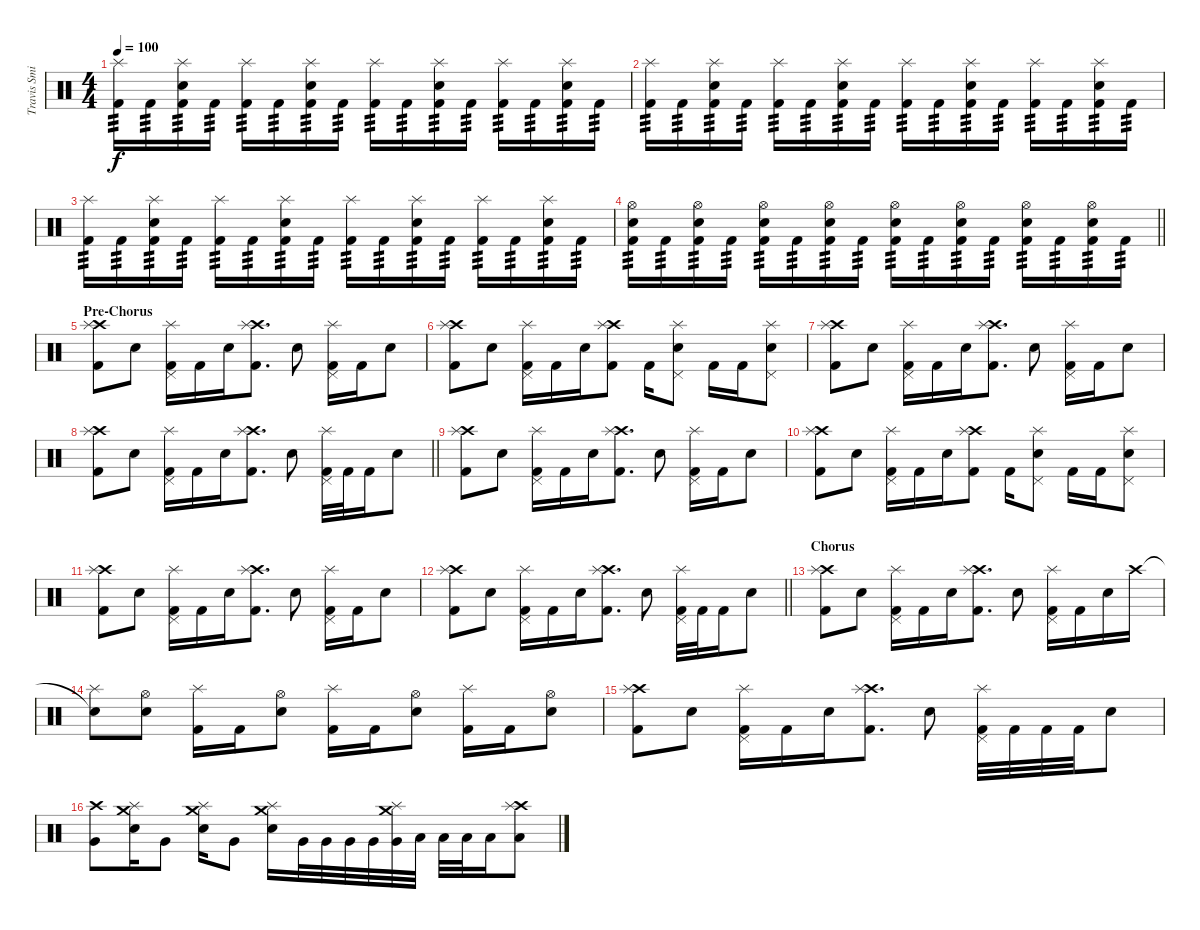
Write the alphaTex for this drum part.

\track ("Travis Smith" "Travis Smi") {instrument percussion}
\staff {score}
\articulation defaults
\ts (4 4)
\tempo 100
\clef neutral
\ks c
("Splash (hit)" "Kick (hit) 2").16{tp 3 dy f} "Kick (hit) 2".16{tp 3} ("Splash (hit)" "Snare (hit) 2" "Kick (hit) 2").16{tp 3} "Kick (hit) 2".16{tp 3} ("Splash (hit)" "Kick (hit) 2").16{tp 3} "Kick (hit) 2".16{tp 3} ("Splash (hit)" "Snare (hit) 2" "Kick (hit) 2").16{tp 3} "Kick (hit) 2".16{tp 3} ("Splash (hit)" "Kick (hit) 2").16{tp 3} "Kick (hit) 2".16{tp 3} ("Splash (hit)" "Snare (hit) 2" "Kick (hit) 2").16{tp 3} "Kick (hit) 2".16{tp 3} ("Splash (hit)" "Kick (hit) 2").16{tp 3} "Kick (hit) 2".16{tp 3} ("Splash (hit)" "Snare (hit) 2" "Kick (hit) 2").16{tp 3} "Kick (hit) 2".16{tp 3} |
("Splash (hit)" "Kick (hit) 2").16{tp 3} "Kick (hit) 2".16{tp 3} ("Splash (hit)" "Snare (hit) 2" "Kick (hit) 2").16{tp 3} "Kick (hit) 2".16{tp 3} ("Splash (hit)" "Kick (hit) 2").16{tp 3} "Kick (hit) 2".16{tp 3} ("Splash (hit)" "Snare (hit) 2" "Kick (hit) 2").16{tp 3} "Kick (hit) 2".16{tp 3} ("Splash (hit)" "Kick (hit) 2").16{tp 3} "Kick (hit) 2".16{tp 3} ("Splash (hit)" "Snare (hit) 2" "Kick (hit) 2").16{tp 3} "Kick (hit) 2".16{tp 3} ("Splash (hit)" "Kick (hit) 2").16{tp 3} "Kick (hit) 2".16{tp 3} ("Splash (hit)" "Snare (hit) 2" "Kick (hit) 2").16{tp 3} "Kick (hit) 2".16{tp 3} |
("Splash (hit)" "Kick (hit) 2").16{tp 3} "Kick (hit) 2".16{tp 3} ("Splash (hit)" "Snare (hit) 2" "Kick (hit) 2").16{tp 3} "Kick (hit) 2".16{tp 3} ("Splash (hit)" "Kick (hit) 2").16{tp 3} "Kick (hit) 2".16{tp 3} ("Splash (hit)" "Snare (hit) 2" "Kick (hit) 2").16{tp 3} "Kick (hit) 2".16{tp 3} ("Splash (hit)" "Kick (hit) 2").16{tp 3} "Kick (hit) 2".16{tp 3} ("Splash (hit)" "Snare (hit) 2" "Kick (hit) 2").16{tp 3} "Kick (hit) 2".16{tp 3} ("Splash (hit)" "Kick (hit) 2").16{tp 3} "Kick (hit) 2".16{tp 3} ("Splash (hit)" "Snare (hit) 2" "Kick (hit) 2").16{tp 3} "Kick (hit) 2".16{tp 3} |
\barLineRight lightlight
("Hi-Hat (open)" "Snare (hit) 2" "Kick (hit) 2").16{tp 3} "Kick (hit) 2".16{tp 3} ("Hi-Hat (open)" "Snare (hit) 2" "Kick (hit) 2").16{tp 3} "Kick (hit) 2".16{tp 3} ("Hi-Hat (open)" "Snare (hit) 2" "Kick (hit) 2").16{tp 3} "Kick (hit) 2".16{tp 3} ("Hi-Hat (open)" "Snare (hit) 2" "Kick (hit) 2").16{tp 3} "Kick (hit) 2".16{tp 3} ("Hi-Hat (open)" "Snare (hit) 2" "Kick (hit) 2").16{tp 3} "Kick (hit) 2".16{tp 3} ("Hi-Hat (open)" "Snare (hit) 2" "Kick (hit) 2").16{tp 3} "Kick (hit) 2".16{tp 3} ("Hi-Hat (open)" "Snare (hit) 2" "Kick (hit) 2").16{tp 3} "Kick (hit) 2".16{tp 3} ("Hi-Hat (open)" "Snare (hit) 2" "Kick (hit) 2").16{tp 3} "Kick (hit) 2".16{tp 3} |
\section ("" "Pre-Chorus")
("Crash high (hit)" "Splash (hit)" "Kick (hit) 2").8 "Snare (hit) 2".8 ("Pedal Hi-Hat (hit)" "Splash (hit)" "Kick (hit) 2").16 "Kick (hit) 2".16 "Snare (hit) 2".16 ("Crash high (hit)" "Splash (hit)" "Kick (hit) 2").8{d} "Snare (hit) 2".8 ("Pedal Hi-Hat (hit)" "Splash (hit)" "Kick (hit) 2").16 "Kick (hit) 2".16 "Snare (hit) 2".8 |
("Crash high (hit)" "Splash (hit)" "Kick (hit) 2").8 "Snare (hit) 2".8 ("Pedal Hi-Hat (hit)" "Splash (hit)" "Kick (hit) 2").16 "Kick (hit) 2".16 "Snare (hit) 2".16 ("Crash high (hit)" "Splash (hit)" "Kick (hit) 2").8 "Kick (hit) 2".16 ("Pedal Hi-Hat (hit)" "Splash (hit)" "Snare (hit) 2").8 "Kick (hit) 2".16 "Kick (hit) 2".16 ("Pedal Hi-Hat (hit)" "Splash (hit)" "Snare (hit) 2").8 |
("Crash high (hit)" "Splash (hit)" "Kick (hit) 2").8 "Snare (hit) 2".8 ("Pedal Hi-Hat (hit)" "Splash (hit)" "Kick (hit) 2").16 "Kick (hit) 2".16 "Snare (hit) 2".16 ("Crash high (hit)" "Splash (hit)" "Kick (hit) 2").8{d} "Snare (hit) 2".8 ("Pedal Hi-Hat (hit)" "Splash (hit)" "Kick (hit) 2").16 "Kick (hit) 2".16 "Snare (hit) 2".8 |
\barLineRight lightlight
("Crash high (hit)" "Splash (hit)" "Kick (hit) 2").8 "Snare (hit) 2".8 ("Pedal Hi-Hat (hit)" "Splash (hit)" "Kick (hit) 2").16 "Kick (hit) 2".16 "Snare (hit) 2".16 ("Crash high (hit)" "Splash (hit)" "Kick (hit) 2").8{d} "Snare (hit) 2".8 ("Pedal Hi-Hat (hit)" "Splash (hit)" "Kick (hit) 2").32 "Kick (hit) 2".32 "Kick (hit) 2".16 "Snare (hit) 2".8 |
("Crash high (hit)" "Splash (hit)" "Kick (hit) 2").8 "Snare (hit) 2".8 ("Pedal Hi-Hat (hit)" "Splash (hit)" "Kick (hit) 2").16 "Kick (hit) 2".16 "Snare (hit) 2".16 ("Crash high (hit)" "Splash (hit)" "Kick (hit) 2").8{d} "Snare (hit) 2".8 ("Pedal Hi-Hat (hit)" "Splash (hit)" "Kick (hit) 2").16 "Kick (hit) 2".16 "Snare (hit) 2".8 |
("Crash high (hit)" "Splash (hit)" "Kick (hit) 2").8 "Snare (hit) 2".8 ("Pedal Hi-Hat (hit)" "Splash (hit)" "Kick (hit) 2").16 "Kick (hit) 2".16 "Snare (hit) 2".16 ("Crash high (hit)" "Splash (hit)" "Kick (hit) 2").8 "Kick (hit) 2".16 ("Pedal Hi-Hat (hit)" "Splash (hit)" "Snare (hit) 2").8 "Kick (hit) 2".16 "Kick (hit) 2".16 ("Pedal Hi-Hat (hit)" "Splash (hit)" "Snare (hit) 2").8 |
("Crash high (hit)" "Splash (hit)" "Kick (hit) 2").8 "Snare (hit) 2".8 ("Pedal Hi-Hat (hit)" "Splash (hit)" "Kick (hit) 2").16 "Kick (hit) 2".16 "Snare (hit) 2".16 ("Crash high (hit)" "Splash (hit)" "Kick (hit) 2").8{d} "Snare (hit) 2".8 ("Pedal Hi-Hat (hit)" "Splash (hit)" "Kick (hit) 2").16 "Kick (hit) 2".16 "Snare (hit) 2".8 |
\barLineRight lightlight
("Crash high (hit)" "Splash (hit)" "Kick (hit) 2").8 "Snare (hit) 2".8 ("Pedal Hi-Hat (hit)" "Splash (hit)" "Kick (hit) 2").16 "Kick (hit) 2".16 "Snare (hit) 2".16 ("Crash high (hit)" "Splash (hit)" "Kick (hit) 2").8{d} "Snare (hit) 2".8 ("Pedal Hi-Hat (hit)" "Splash (hit)" "Kick (hit) 2").32 "Kick (hit) 2".32 "Kick (hit) 2".16 "Snare (hit) 2".8 |
\section ("" "Chorus")
("Crash high (hit)" "Splash (hit)" "Kick (hit) 2").8 "Snare (hit) 2".8 ("Pedal Hi-Hat (hit)" "Splash (hit)" "Kick (hit) 2").16 "Kick (hit) 2".16 "Snare (hit) 2".16 ("Crash high (hit)" "Splash (hit)" "Kick (hit) 2").8{d} "Snare (hit) 2".8 ("Pedal Hi-Hat (hit)" "Splash (hit)" "Kick (hit) 2").16 "Kick (hit) 2".16 "Snare (hit) 2".16 "Crash high (hit)".16 |
("Snare (hit)"{t} "Splash (hit)").8 ("Hi-Hat (open)" "Snare (hit) 2").8 ("Splash (hit)" "Kick (hit) 2").16 "Kick (hit) 2".16 ("Hi-Hat (open)" "Snare (hit) 2").8 ("Splash (hit)" "Kick (hit) 2").16 "Kick (hit) 2".16 ("Hi-Hat (open)" "Snare (hit) 2").8 ("Splash (hit)" "Kick (hit) 2").16 "Kick (hit) 2".16 ("Hi-Hat (open)" "Snare (hit) 2").8 |
("Crash high (hit)" "Splash (hit)" "Kick (hit) 2").8 "Snare (hit) 2".8 ("Pedal Hi-Hat (hit)" "Splash (hit)" "Kick (hit) 2").16 "Kick (hit) 2".16 "Snare (hit) 2".16 ("Crash high (hit)" "Splash (hit)" "Kick (hit) 2").8{d} "Snare (hit) 2".8 ("Pedal Hi-Hat (hit)" "Splash (hit)" "Kick (hit) 2").32 "Kick (hit) 2".32 "Kick (hit) 2".32 "Kick (hit) 2".32 "Snare (hit) 2".8 |
("Crash high (hit)" "Very Low Tom (hit)").8 ("Crash medium (hit)" "Splash (hit)" "Snare (hit) 2").16 "Very Low Tom (hit)".8 ("Crash medium (hit)" "Splash (hit)" "Snare (hit) 2").16 "Very Low Tom (hit)".8 ("Crash medium (hit)" "Splash (hit)" "Snare (hit) 2").16 "Very Low Tom (hit)".32 "Very Low Tom (hit)".32 "Very Low Tom (hit)".32 "Very Low Tom (hit)".32 ("Crash medium (hit)" "Splash (hit)" "Very Low Tom (hit)").32 "Low Tom (hit)".32 "Low Tom (hit)".32 "Low Tom (hit)".32 "Low Tom (hit)".16 ("Crash high (hit)" "Splash (hit)" "Low Tom (hit)").8
